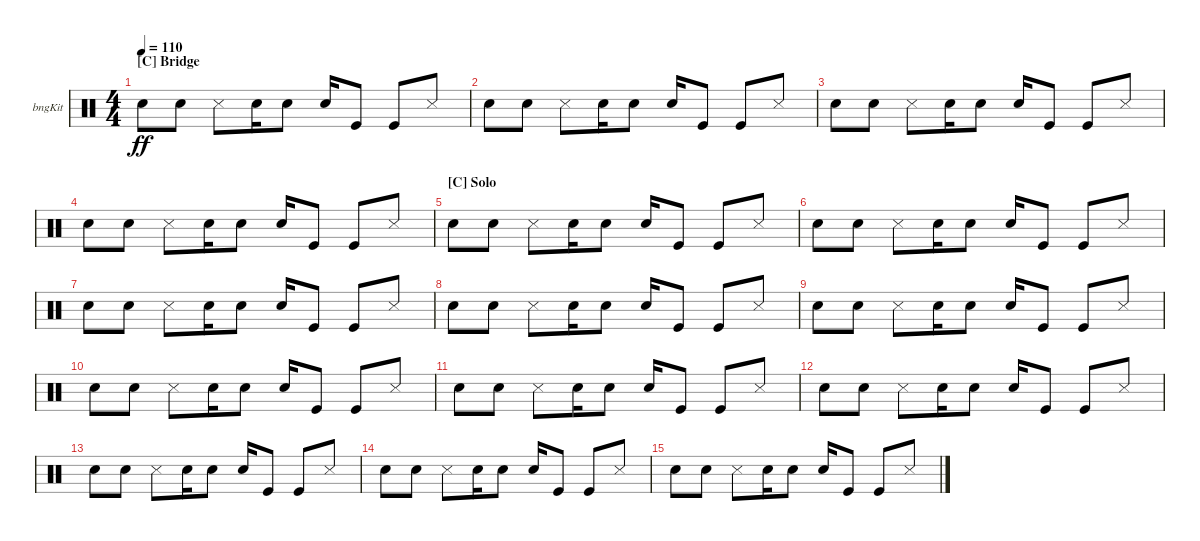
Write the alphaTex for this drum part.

\defaultSystemsLayout 4
\bracketExtendMode groupsimilarinstruments
\firstSystemTrackNameOrientation horizontal
\otherSystemsTrackNameOrientation horizontal
\track ("Bongos" "bngKit") {instrument percussion}
\staff {score}
\articulation defaults
\ts (4 4)
\section ("C" "Bridge")
\tempo 110
\clef neutral
\ks c "Snare (hit) 2".8{dy ff} "Snare (hit) 2".8 "Snare (side stick) 3".8 "Snare (hit) 2".16 "Snare (hit) 2".8 "Snare (hit) 2".16 "Kick (hit)".8 "Kick (hit)".8 "Snare (side stick) 3".8
|
"Snare (hit) 2".8 "Snare (hit) 2".8 "Snare (side stick) 3".8 "Snare (hit) 2".16 "Snare (hit) 2".8 "Snare (hit) 2".16 "Kick (hit)".8 "Kick (hit)".8 "Snare (side stick) 3".8 |
"Snare (hit) 2".8 "Snare (hit) 2".8 "Snare (side stick) 3".8 "Snare (hit) 2".16 "Snare (hit) 2".8 "Snare (hit) 2".16 "Kick (hit)".8 "Kick (hit)".8 "Snare (side stick) 3".8 |
"Snare (hit) 2".8 "Snare (hit) 2".8 "Snare (side stick) 3".8 "Snare (hit) 2".16 "Snare (hit) 2".8 "Snare (hit) 2".16 "Kick (hit)".8 "Kick (hit)".8 "Snare (side stick) 3".8 |
\section ("C" "Solo")
"Snare (hit) 2".8 "Snare (hit) 2".8 "Snare (side stick) 3".8 "Snare (hit) 2".16 "Snare (hit) 2".8 "Snare (hit) 2".16 "Kick (hit)".8 "Kick (hit)".8 "Snare (side stick) 3".8 |
"Snare (hit) 2".8 "Snare (hit) 2".8 "Snare (side stick) 3".8 "Snare (hit) 2".16 "Snare (hit) 2".8 "Snare (hit) 2".16 "Kick (hit)".8 "Kick (hit)".8 "Snare (side stick) 3".8 |
"Snare (hit) 2".8 "Snare (hit) 2".8 "Snare (side stick) 3".8 "Snare (hit) 2".16 "Snare (hit) 2".8 "Snare (hit) 2".16 "Kick (hit)".8 "Kick (hit)".8 "Snare (side stick) 3".8 |
"Snare (hit) 2".8 "Snare (hit) 2".8 "Snare (side stick) 3".8 "Snare (hit) 2".16 "Snare (hit) 2".8 "Snare (hit) 2".16 "Kick (hit)".8 "Kick (hit)".8 "Snare (side stick) 3".8 |
"Snare (hit) 2".8 "Snare (hit) 2".8 "Snare (side stick) 3".8 "Snare (hit) 2".16 "Snare (hit) 2".8 "Snare (hit) 2".16 "Kick (hit)".8 "Kick (hit)".8 "Snare (side stick) 3".8 |
"Snare (hit) 2".8 "Snare (hit) 2".8 "Snare (side stick) 3".8 "Snare (hit) 2".16 "Snare (hit) 2".8 "Snare (hit) 2".16 "Kick (hit)".8 "Kick (hit)".8 "Snare (side stick) 3".8 |
"Snare (hit) 2".8 "Snare (hit) 2".8 "Snare (side stick) 3".8 "Snare (hit) 2".16 "Snare (hit) 2".8 "Snare (hit) 2".16 "Kick (hit)".8 "Kick (hit)".8 "Snare (side stick) 3".8 |
"Snare (hit) 2".8 "Snare (hit) 2".8 "Snare (side stick) 3".8 "Snare (hit) 2".16 "Snare (hit) 2".8 "Snare (hit) 2".16 "Kick (hit)".8 "Kick (hit)".8 "Snare (side stick) 3".8 |
"Snare (hit) 2".8 "Snare (hit) 2".8 "Snare (side stick) 3".8 "Snare (hit) 2".16 "Snare (hit) 2".8 "Snare (hit) 2".16 "Kick (hit)".8 "Kick (hit)".8 "Snare (side stick) 3".8 |
"Snare (hit) 2".8 "Snare (hit) 2".8 "Snare (side stick) 3".8 "Snare (hit) 2".16 "Snare (hit) 2".8 "Snare (hit) 2".16 "Kick (hit)".8 "Kick (hit)".8 "Snare (side stick) 3".8 |
"Snare (hit) 2".8 "Snare (hit) 2".8 "Snare (side stick) 3".8 "Snare (hit) 2".16 "Snare (hit) 2".8 "Snare (hit) 2".16 "Kick (hit)".8 "Kick (hit)".8 "Snare (side stick) 3".8
